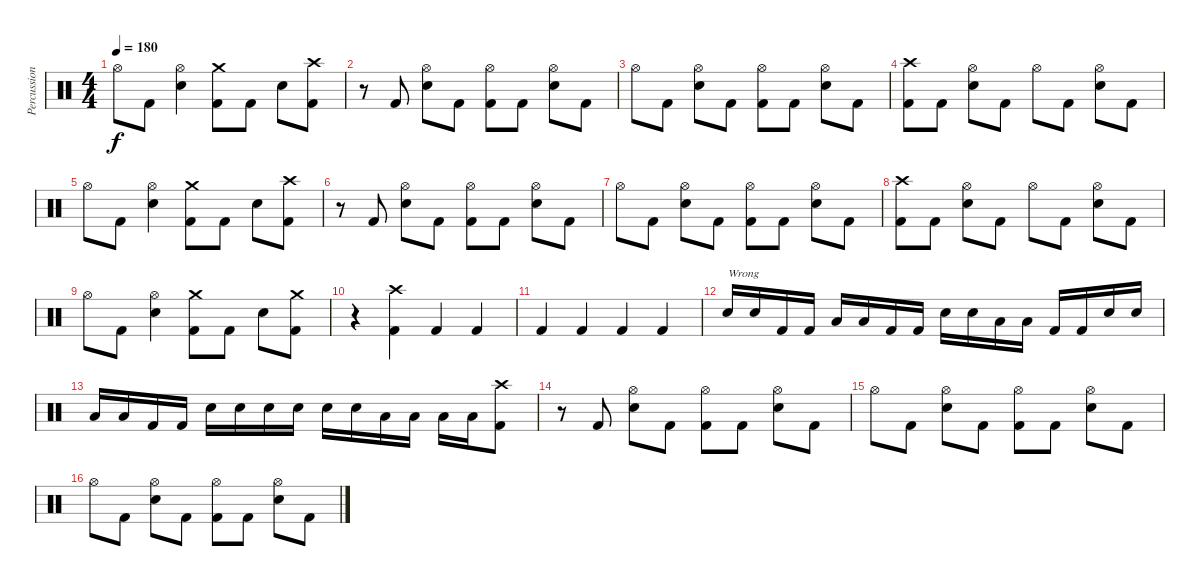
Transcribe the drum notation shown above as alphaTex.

\track ("Percussion" "Percussion") {instrument percussion}
\staff {score}
\articulation defaults
\ts (4 4)
\tempo 180
\clef neutral
\ks c "Hi-Hat (open)".8{dy f} "Kick (hit) 2".8
("Hi-Hat (open)" "Electric Snare (hit)").4 ("Crash medium (hit)" "Kick (hit) 2").8 "Kick (hit) 2".8 "Electric Snare (hit)".8 ("Crash high (hit)" "Kick (hit) 2").8 |
r.8 "Kick (hit) 2".8 ("Hi-Hat (open)" "Electric Snare (hit)").8 "Kick (hit) 2".8 ("Hi-Hat (open)" "Kick (hit) 2").8 "Kick (hit) 2".8 ("Hi-Hat (open)" "Electric Snare (hit)").8 "Kick (hit) 2".8 |
"Hi-Hat (open)".8 "Kick (hit) 2".8 ("Hi-Hat (open)" "Electric Snare (hit)").8 "Kick (hit) 2".8 ("Hi-Hat (open)" "Kick (hit) 2").8 "Kick (hit) 2".8 ("Hi-Hat (open)" "Electric Snare (hit)").8 "Kick (hit) 2".8 |
("Crash high (hit)" "Kick (hit) 2").8 "Kick (hit) 2".8 ("Hi-Hat (open)" "Electric Snare (hit)").8 "Kick (hit) 2".8 "Hi-Hat (open)".8 "Kick (hit) 2".8 ("Hi-Hat (open)" "Electric Snare (hit)").8 "Kick (hit) 2".8 |
"Hi-Hat (open)".8 "Kick (hit) 2".8 ("Hi-Hat (open)" "Electric Snare (hit)").4 ("Crash medium (hit)" "Kick (hit) 2").8 "Kick (hit) 2".8 "Electric Snare (hit)".8 ("Crash high (hit)" "Kick (hit) 2").8 |
r.8 "Kick (hit) 2".8 ("Hi-Hat (open)" "Electric Snare (hit)").8 "Kick (hit) 2".8 ("Hi-Hat (open)" "Kick (hit) 2").8 "Kick (hit) 2".8 ("Hi-Hat (open)" "Electric Snare (hit)").8 "Kick (hit) 2".8 |
"Hi-Hat (open)".8 "Kick (hit) 2".8 ("Hi-Hat (open)" "Electric Snare (hit)").8 "Kick (hit) 2".8 ("Hi-Hat (open)" "Kick (hit) 2").8 "Kick (hit) 2".8 ("Hi-Hat (open)" "Electric Snare (hit)").8 "Kick (hit) 2".8 |
("Crash high (hit)" "Kick (hit) 2").8 "Kick (hit) 2".8 ("Hi-Hat (open)" "Electric Snare (hit)").8 "Kick (hit) 2".8 "Hi-Hat (open)".8 "Kick (hit) 2".8 ("Hi-Hat (open)" "Electric Snare (hit)").8 "Kick (hit) 2".8 |
"Hi-Hat (open)".8 "Kick (hit) 2".8 ("Hi-Hat (open)" "Electric Snare (hit)").4 ("Crash medium (hit)" "Kick (hit) 2").8 "Kick (hit) 2".8 "Electric Snare (hit)".8 ("Crash medium (hit)" "Kick (hit) 2").8 |
r.4 ("Crash high (hit)" "Kick (hit) 2").4 "Kick (hit) 2".4 "Kick (hit) 2".4 |
"Kick (hit) 2".4 "Kick (hit) 2".4 "Kick (hit) 2".4 "Kick (hit) 2".4 |
"Electric Snare (hit)".16{txt "Wrong"} "Electric Snare (hit)".16 "Kick (hit) 2".16 "Kick (hit) 2".16 "Low Tom (hit)".16 "Low Floor Tom (hit)".16 "Kick (hit) 2".16 "Kick (hit) 2".16 "Electric Snare (hit)".16 "Electric Snare (hit)".16 "Low Tom (hit)".16 "Low Floor Tom (hit)".16 "Kick (hit) 2".16 "Kick (hit) 2".16 "Electric Snare (hit)".16 "Electric Snare (hit)".16 |
"Low Tom (hit)".16 "Low Floor Tom (hit)".16 "Kick (hit) 2".16 "Kick (hit) 2".16 "Electric Snare (hit)".16 "Electric Snare (hit)".16 "Electric Snare (hit)".16 "Electric Snare (hit)".16 "Electric Snare (hit)".16 "Electric Snare (hit)".16 "Low Tom (hit)".16 "Low Tom (hit)".16 "Low Tom (hit)".16 "Low Floor Tom (hit)".16 ("Crash high (hit)" "Kick (hit) 2").8 |
r.8 "Kick (hit) 2".8 ("Hi-Hat (open)" "Electric Snare (hit)").8 "Kick (hit) 2".8 ("Hi-Hat (open)" "Kick (hit) 2").8 "Kick (hit) 2".8 ("Hi-Hat (open)" "Electric Snare (hit)").8 "Kick (hit) 2".8 |
"Hi-Hat (open)".8 "Kick (hit) 2".8 ("Hi-Hat (open)" "Electric Snare (hit)").8 "Kick (hit) 2".8 ("Hi-Hat (open)" "Kick (hit) 2").8 "Kick (hit) 2".8 ("Hi-Hat (open)" "Electric Snare (hit)").8 "Kick (hit) 2".8 |
"Hi-Hat (open)".8 "Kick (hit) 2".8 ("Hi-Hat (open)" "Electric Snare (hit)").8 "Kick (hit) 2".8 ("Hi-Hat (open)" "Kick (hit) 2").8 "Kick (hit) 2".8 ("Hi-Hat (open)" "Electric Snare (hit)").8 "Kick (hit) 2".8
